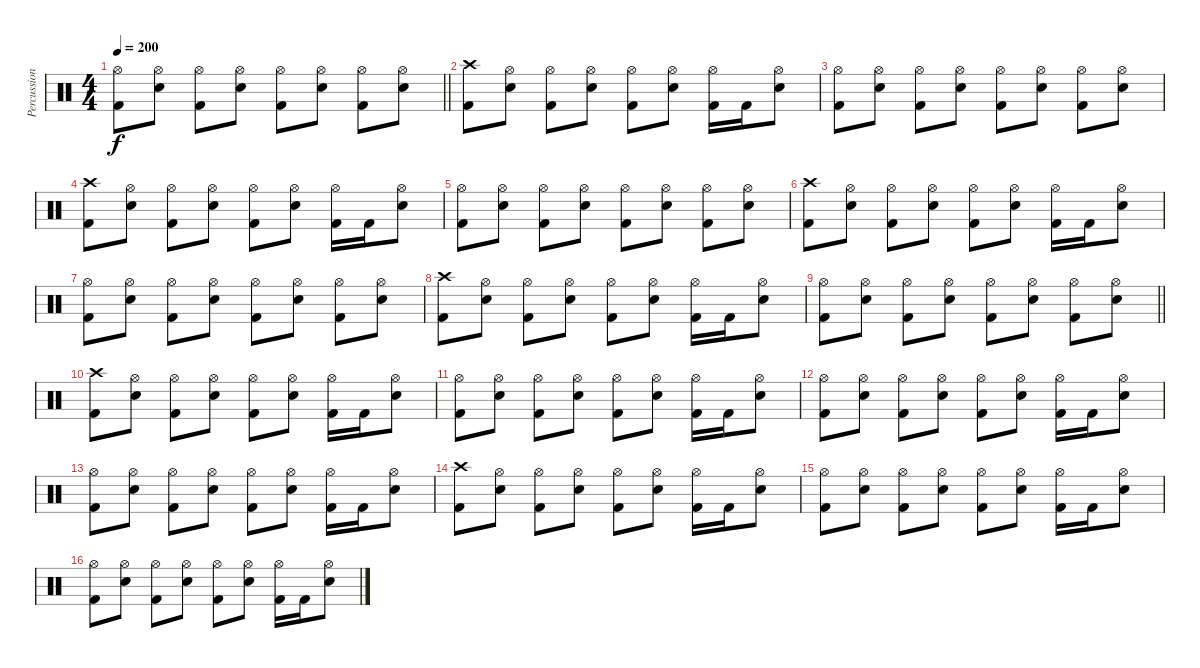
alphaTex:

\track ("Percussion" "Percussion") {instrument percussion}
\staff {score}
\articulation defaults
\ts (4 4)
\tempo 200
\clef neutral
\barLineRight lightlight
\ks c
("Hi-Hat (open)" "Kick (hit) 2").8{dy f} ("Hi-Hat (open)" "Snare (hit) 2").8 ("Hi-Hat (open)" "Kick (hit) 2").8 ("Hi-Hat (open)" "Snare (hit) 2").8 ("Hi-Hat (open)" "Kick (hit) 2").8 ("Hi-Hat (open)" "Snare (hit) 2").8 ("Hi-Hat (open)" "Kick (hit) 2").8 ("Hi-Hat (open)" "Snare (hit) 2").8 |
\section ("" "")
("Crash high (hit)" "Kick (hit) 2").8 ("Hi-Hat (open)" "Snare (hit) 2").8 ("Hi-Hat (open)" "Kick (hit) 2").8 ("Hi-Hat (open)" "Snare (hit) 2").8 ("Hi-Hat (open)" "Kick (hit) 2").8 ("Hi-Hat (open)" "Snare (hit) 2").8 ("Hi-Hat (open)" "Kick (hit) 2").16 "Kick (hit) 2".16 ("Hi-Hat (open)" "Snare (hit) 2").8 |
("Hi-Hat (open)" "Kick (hit) 2").8 ("Hi-Hat (open)" "Snare (hit) 2").8 ("Hi-Hat (open)" "Kick (hit) 2").8 ("Hi-Hat (open)" "Snare (hit) 2").8 ("Hi-Hat (open)" "Kick (hit) 2").8 ("Hi-Hat (open)" "Snare (hit) 2").8 ("Hi-Hat (open)" "Kick (hit) 2").8 ("Hi-Hat (open)" "Snare (hit) 2").8 |
("Crash high (hit)" "Kick (hit) 2").8 ("Hi-Hat (open)" "Snare (hit) 2").8 ("Hi-Hat (open)" "Kick (hit) 2").8 ("Hi-Hat (open)" "Snare (hit) 2").8 ("Hi-Hat (open)" "Kick (hit) 2").8 ("Hi-Hat (open)" "Snare (hit) 2").8 ("Hi-Hat (open)" "Kick (hit) 2").16 "Kick (hit) 2".16 ("Hi-Hat (open)" "Snare (hit) 2").8 |
("Hi-Hat (open)" "Kick (hit) 2").8 ("Hi-Hat (open)" "Snare (hit) 2").8 ("Hi-Hat (open)" "Kick (hit) 2").8 ("Hi-Hat (open)" "Snare (hit) 2").8 ("Hi-Hat (open)" "Kick (hit) 2").8 ("Hi-Hat (open)" "Snare (hit) 2").8 ("Hi-Hat (open)" "Kick (hit) 2").8 ("Hi-Hat (open)" "Snare (hit) 2").8 |
("Crash high (hit)" "Kick (hit) 2").8 ("Hi-Hat (open)" "Snare (hit) 2").8 ("Hi-Hat (open)" "Kick (hit) 2").8 ("Hi-Hat (open)" "Snare (hit) 2").8 ("Hi-Hat (open)" "Kick (hit) 2").8 ("Hi-Hat (open)" "Snare (hit) 2").8 ("Hi-Hat (open)" "Kick (hit) 2").16 "Kick (hit) 2".16 ("Hi-Hat (open)" "Snare (hit) 2").8 |
("Hi-Hat (open)" "Kick (hit) 2").8 ("Hi-Hat (open)" "Snare (hit) 2").8 ("Hi-Hat (open)" "Kick (hit) 2").8 ("Hi-Hat (open)" "Snare (hit) 2").8 ("Hi-Hat (open)" "Kick (hit) 2").8 ("Hi-Hat (open)" "Snare (hit) 2").8 ("Hi-Hat (open)" "Kick (hit) 2").8 ("Hi-Hat (open)" "Snare (hit) 2").8 |
("Crash high (hit)" "Kick (hit) 2").8 ("Hi-Hat (open)" "Snare (hit) 2").8 ("Hi-Hat (open)" "Kick (hit) 2").8 ("Hi-Hat (open)" "Snare (hit) 2").8 ("Hi-Hat (open)" "Kick (hit) 2").8 ("Hi-Hat (open)" "Snare (hit) 2").8 ("Hi-Hat (open)" "Kick (hit) 2").16 "Kick (hit) 2".16 ("Hi-Hat (open)" "Snare (hit) 2").8 |
\barLineRight lightlight
("Hi-Hat (open)" "Kick (hit) 2").8 ("Hi-Hat (open)" "Snare (hit) 2").8 ("Hi-Hat (open)" "Kick (hit) 2").8 ("Hi-Hat (open)" "Snare (hit) 2").8 ("Hi-Hat (open)" "Kick (hit) 2").8 ("Hi-Hat (open)" "Snare (hit) 2").8 ("Hi-Hat (open)" "Kick (hit) 2").8 ("Hi-Hat (open)" "Snare (hit) 2").8 |
\section ("" "")
("Crash high (hit)" "Kick (hit) 2").8 ("Hi-Hat (open)" "Snare (hit) 2").8 ("Hi-Hat (open)" "Kick (hit) 2").8 ("Hi-Hat (open)" "Snare (hit) 2").8 ("Hi-Hat (open)" "Kick (hit) 2").8 ("Hi-Hat (open)" "Snare (hit) 2").8 ("Hi-Hat (open)" "Kick (hit) 2").16 "Kick (hit) 2".16 ("Hi-Hat (open)" "Snare (hit) 2").8 |
("Hi-Hat (open)" "Kick (hit) 2").8 ("Hi-Hat (open)" "Snare (hit) 2").8 ("Hi-Hat (open)" "Kick (hit) 2").8 ("Hi-Hat (open)" "Snare (hit) 2").8 ("Hi-Hat (open)" "Kick (hit) 2").8 ("Hi-Hat (open)" "Snare (hit) 2").8 ("Hi-Hat (open)" "Kick (hit) 2").16 "Kick (hit) 2".16 ("Hi-Hat (open)" "Snare (hit) 2").8 |
("Hi-Hat (open)" "Kick (hit) 2").8 ("Hi-Hat (open)" "Snare (hit) 2").8 ("Hi-Hat (open)" "Kick (hit) 2").8 ("Hi-Hat (open)" "Snare (hit) 2").8 ("Hi-Hat (open)" "Kick (hit) 2").8 ("Hi-Hat (open)" "Snare (hit) 2").8 ("Hi-Hat (open)" "Kick (hit) 2").16 "Kick (hit) 2".16 ("Hi-Hat (open)" "Snare (hit) 2").8 |
("Hi-Hat (open)" "Kick (hit) 2").8 ("Hi-Hat (open)" "Snare (hit) 2").8 ("Hi-Hat (open)" "Kick (hit) 2").8 ("Hi-Hat (open)" "Snare (hit) 2").8 ("Hi-Hat (open)" "Kick (hit) 2").8 ("Hi-Hat (open)" "Snare (hit) 2").8 ("Hi-Hat (open)" "Kick (hit) 2").16 "Kick (hit) 2".16 ("Hi-Hat (open)" "Snare (hit) 2").8 |
("Crash high (hit)" "Kick (hit) 2").8 ("Hi-Hat (open)" "Snare (hit) 2").8 ("Hi-Hat (open)" "Kick (hit) 2").8 ("Hi-Hat (open)" "Snare (hit) 2").8 ("Hi-Hat (open)" "Kick (hit) 2").8 ("Hi-Hat (open)" "Snare (hit) 2").8 ("Hi-Hat (open)" "Kick (hit) 2").16 "Kick (hit) 2".16 ("Hi-Hat (open)" "Snare (hit) 2").8 |
("Hi-Hat (open)" "Kick (hit) 2").8 ("Hi-Hat (open)" "Snare (hit) 2").8 ("Hi-Hat (open)" "Kick (hit) 2").8 ("Hi-Hat (open)" "Snare (hit) 2").8 ("Hi-Hat (open)" "Kick (hit) 2").8 ("Hi-Hat (open)" "Snare (hit) 2").8 ("Hi-Hat (open)" "Kick (hit) 2").16 "Kick (hit) 2".16 ("Hi-Hat (open)" "Snare (hit) 2").8 |
("Hi-Hat (open)" "Kick (hit) 2").8 ("Hi-Hat (open)" "Snare (hit) 2").8 ("Hi-Hat (open)" "Kick (hit) 2").8 ("Hi-Hat (open)" "Snare (hit) 2").8 ("Hi-Hat (open)" "Kick (hit) 2").8 ("Hi-Hat (open)" "Snare (hit) 2").8 ("Hi-Hat (open)" "Kick (hit) 2").16 "Kick (hit) 2".16 ("Hi-Hat (open)" "Snare (hit) 2").8
